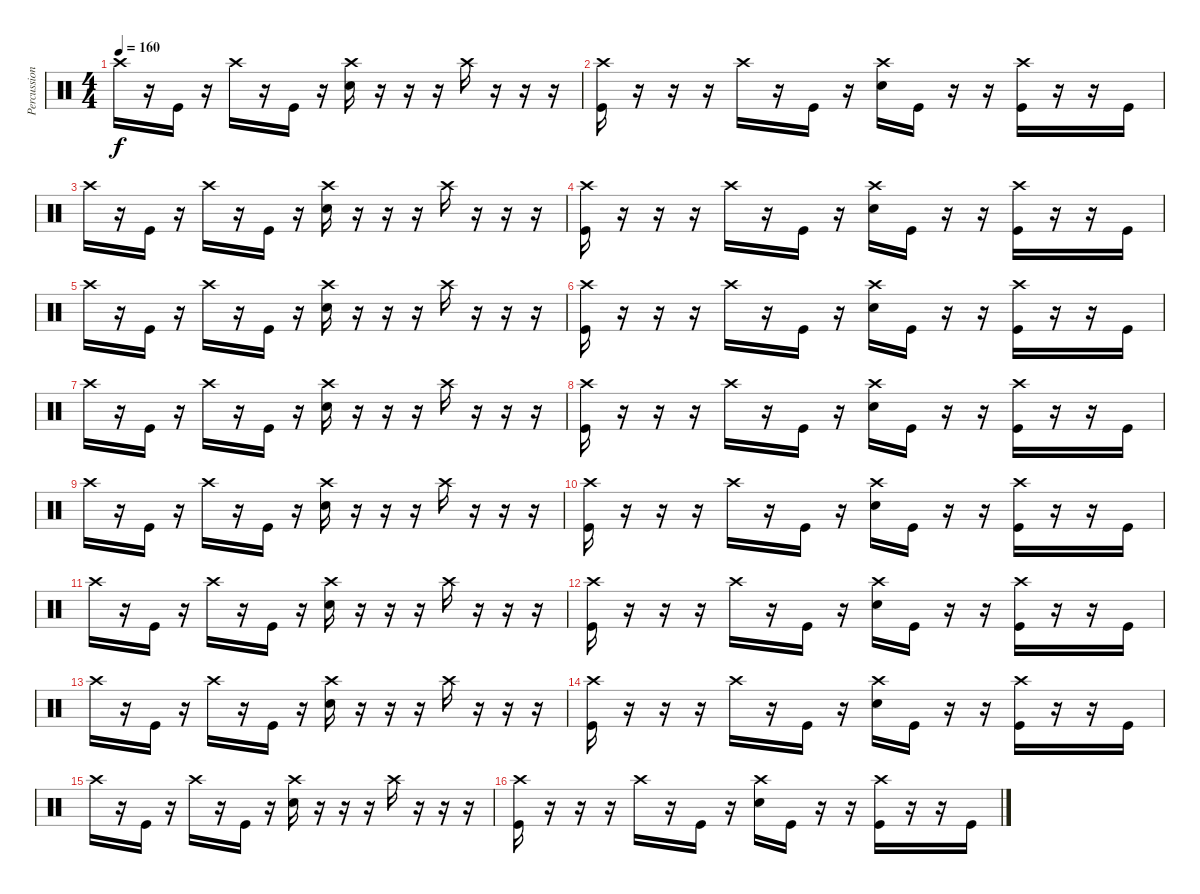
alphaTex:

\track ("Percussion" "Percussion") {instrument percussion}
\staff {score}
\articulation defaults
\ts (4 4)
\tempo 160
\clef neutral
\ks c "Crash high (hit)".16{dy f}
r.16 "Kick (hit)".16 r.16 "Crash high (hit)".16 r.16 "Kick (hit)".16 r.16 ("Crash high (hit)" "Snare (hit) 2").16 r.16 r.16 r.16 "Crash high (hit)".16 r.16 r.16 r.16 |
("Kick (hit)" "Crash high (hit)").16 r.16 r.16 r.16 "Crash high (hit)".16 r.16 "Kick (hit)".16 r.16 ("Crash high (hit)" "Snare (hit) 2").16 "Kick (hit)".16 r.16 r.16 ("Crash high (hit)" "Kick (hit)").16 r.16 r.16 "Kick (hit)".16 |
"Crash high (hit)".16 r.16 "Kick (hit)".16 r.16 "Crash high (hit)".16 r.16 "Kick (hit)".16 r.16 ("Crash high (hit)" "Snare (hit) 2").16 r.16 r.16 r.16 "Crash high (hit)".16 r.16 r.16 r.16 |
("Kick (hit)" "Crash high (hit)").16 r.16 r.16 r.16 "Crash high (hit)".16 r.16 "Kick (hit)".16 r.16 ("Crash high (hit)" "Snare (hit) 2").16 "Kick (hit)".16 r.16 r.16 ("Crash high (hit)" "Kick (hit)").16 r.16 r.16 "Kick (hit)".16 |
"Crash high (hit)".16 r.16 "Kick (hit)".16 r.16 "Crash high (hit)".16 r.16 "Kick (hit)".16 r.16 ("Crash high (hit)" "Snare (hit) 2").16 r.16 r.16 r.16 "Crash high (hit)".16 r.16 r.16 r.16 |
("Kick (hit)" "Crash high (hit)").16 r.16 r.16 r.16 "Crash high (hit)".16 r.16 "Kick (hit)".16 r.16 ("Crash high (hit)" "Snare (hit) 2").16 "Kick (hit)".16 r.16 r.16 ("Crash high (hit)" "Kick (hit)").16 r.16 r.16 "Kick (hit)".16 |
"Crash high (hit)".16 r.16 "Kick (hit)".16 r.16 "Crash high (hit)".16 r.16 "Kick (hit)".16 r.16 ("Crash high (hit)" "Snare (hit) 2").16 r.16 r.16 r.16 "Crash high (hit)".16 r.16 r.16 r.16 |
("Kick (hit)" "Crash high (hit)").16 r.16 r.16 r.16 "Crash high (hit)".16 r.16 "Kick (hit)".16 r.16 ("Crash high (hit)" "Snare (hit) 2").16 "Kick (hit)".16 r.16 r.16 ("Crash high (hit)" "Kick (hit)").16 r.16 r.16 "Kick (hit)".16 |
"Crash high (hit)".16 r.16 "Kick (hit)".16 r.16 "Crash high (hit)".16 r.16 "Kick (hit)".16 r.16 ("Crash high (hit)" "Snare (hit) 2").16 r.16 r.16 r.16 "Crash high (hit)".16 r.16 r.16 r.16 |
("Kick (hit)" "Crash high (hit)").16 r.16 r.16 r.16 "Crash high (hit)".16 r.16 "Kick (hit)".16 r.16 ("Crash high (hit)" "Snare (hit) 2").16 "Kick (hit)".16 r.16 r.16 ("Crash high (hit)" "Kick (hit)").16 r.16 r.16 "Kick (hit)".16 |
"Crash high (hit)".16 r.16 "Kick (hit)".16 r.16 "Crash high (hit)".16 r.16 "Kick (hit)".16 r.16 ("Crash high (hit)" "Snare (hit) 2").16 r.16 r.16 r.16 "Crash high (hit)".16 r.16 r.16 r.16 |
("Kick (hit)" "Crash high (hit)").16 r.16 r.16 r.16 "Crash high (hit)".16 r.16 "Kick (hit)".16 r.16 ("Crash high (hit)" "Snare (hit) 2").16 "Kick (hit)".16 r.16 r.16 ("Crash high (hit)" "Kick (hit)").16 r.16 r.16 "Kick (hit)".16 |
"Crash high (hit)".16 r.16 "Kick (hit)".16 r.16 "Crash high (hit)".16 r.16 "Kick (hit)".16 r.16 ("Crash high (hit)" "Snare (hit) 2").16 r.16 r.16 r.16 "Crash high (hit)".16 r.16 r.16 r.16 |
("Kick (hit)" "Crash high (hit)").16 r.16 r.16 r.16 "Crash high (hit)".16 r.16 "Kick (hit)".16 r.16 ("Crash high (hit)" "Snare (hit) 2").16 "Kick (hit)".16 r.16 r.16 ("Crash high (hit)" "Kick (hit)").16 r.16 r.16 "Kick (hit)".16 |
"Crash high (hit)".16 r.16 "Kick (hit)".16 r.16 "Crash high (hit)".16 r.16 "Kick (hit)".16 r.16 ("Crash high (hit)" "Snare (hit) 2").16 r.16 r.16 r.16 "Crash high (hit)".16 r.16 r.16 r.16 |
("Kick (hit)" "Crash high (hit)").16 r.16 r.16 r.16 "Crash high (hit)".16 r.16 "Kick (hit)".16 r.16 ("Crash high (hit)" "Snare (hit) 2").16 "Kick (hit)".16 r.16 r.16 ("Crash high (hit)" "Kick (hit)").16 r.16 r.16 "Kick (hit)".16
